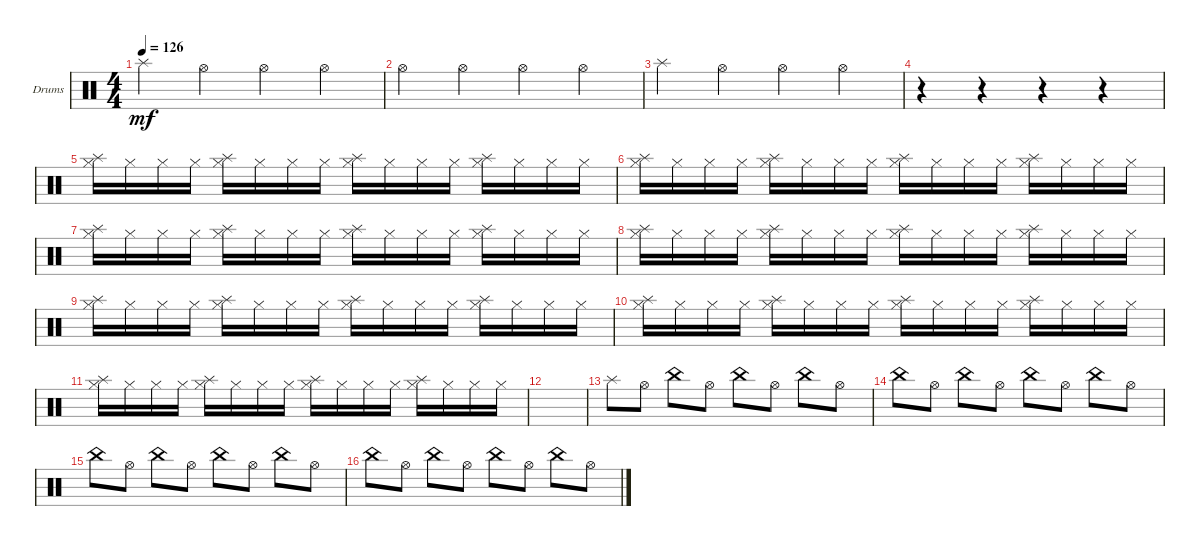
\defaultSystemsLayout 4
\bracketExtendMode groupsimilarinstruments
\firstSystemTrackNameOrientation horizontal
\otherSystemsTrackNameOrientation horizontal
\track ("Drumkit" "Drums") {instrument percussion}
\staff {score}
\articulation defaults
\ts (4 4)
\tempo 126
\clef neutral
\ks c "Splash (hit)".4{dy mf} "Hi-Hat (open)".4 "Hi-Hat (open)".4 "Hi-Hat (open)".4
|
"Hi-Hat (open)".4 "Hi-Hat (open)".4 "Hi-Hat (open)".4 "Hi-Hat (open)".4 |
"Splash (hit)".4 "Hi-Hat (open)".4 "Hi-Hat (open)".4 "Hi-Hat (open)".4 |
r.4 r.4 r.4 r.4 |
("Hi-Hat (closed)" "Splash (hit)").16 "Hi-Hat (closed)".16 "Hi-Hat (closed)".16 "Hi-Hat (closed)".16 ("Hi-Hat (closed)" "Splash (hit)").16 "Hi-Hat (closed)".16 "Hi-Hat (closed)".16 "Hi-Hat (closed)".16 ("Hi-Hat (closed)" "Splash (hit)").16 "Hi-Hat (closed)".16 "Hi-Hat (closed)".16 "Hi-Hat (closed)".16 ("Hi-Hat (closed)" "Splash (hit)").16 "Hi-Hat (closed)".16 "Hi-Hat (closed)".16 "Hi-Hat (closed)".16 |
("Hi-Hat (closed)" "Splash (hit)").16 "Hi-Hat (closed)".16 "Hi-Hat (closed)".16 "Hi-Hat (closed)".16 ("Hi-Hat (closed)" "Splash (hit)").16 "Hi-Hat (closed)".16 "Hi-Hat (closed)".16 "Hi-Hat (closed)".16 ("Hi-Hat (closed)" "Splash (hit)").16 "Hi-Hat (closed)".16 "Hi-Hat (closed)".16 "Hi-Hat (closed)".16 ("Hi-Hat (closed)" "Splash (hit)").16 "Hi-Hat (closed)".16 "Hi-Hat (closed)".16 "Hi-Hat (closed)".16 |
("Hi-Hat (closed)" "Splash (hit)").16 "Hi-Hat (closed)".16 "Hi-Hat (closed)".16 "Hi-Hat (closed)".16 ("Hi-Hat (closed)" "Splash (hit)").16 "Hi-Hat (closed)".16 "Hi-Hat (closed)".16 "Hi-Hat (closed)".16 ("Hi-Hat (closed)" "Splash (hit)").16 "Hi-Hat (closed)".16 "Hi-Hat (closed)".16 "Hi-Hat (closed)".16 ("Hi-Hat (closed)" "Splash (hit)").16 "Hi-Hat (closed)".16 "Hi-Hat (closed)".16 "Hi-Hat (closed)".16 |
("Hi-Hat (closed)" "Splash (hit)").16 "Hi-Hat (closed)".16 "Hi-Hat (closed)".16 "Hi-Hat (closed)".16 ("Hi-Hat (closed)" "Splash (hit)").16 "Hi-Hat (closed)".16 "Hi-Hat (closed)".16 "Hi-Hat (closed)".16 ("Hi-Hat (closed)" "Splash (hit)").16 "Hi-Hat (closed)".16 "Hi-Hat (closed)".16 "Hi-Hat (closed)".16 ("Hi-Hat (closed)" "Splash (hit)").16 "Hi-Hat (closed)".16 "Hi-Hat (closed)".16 "Hi-Hat (closed)".16 |
("Hi-Hat (closed)" "Splash (hit)").16 "Hi-Hat (closed)".16 "Hi-Hat (closed)".16 "Hi-Hat (closed)".16 ("Hi-Hat (closed)" "Splash (hit)").16 "Hi-Hat (closed)".16 "Hi-Hat (closed)".16 "Hi-Hat (closed)".16 ("Hi-Hat (closed)" "Splash (hit)").16 "Hi-Hat (closed)".16 "Hi-Hat (closed)".16 "Hi-Hat (closed)".16 ("Hi-Hat (closed)" "Splash (hit)").16 "Hi-Hat (closed)".16 "Hi-Hat (closed)".16 "Hi-Hat (closed)".16 |
("Hi-Hat (closed)" "Splash (hit)").16 "Hi-Hat (closed)".16 "Hi-Hat (closed)".16 "Hi-Hat (closed)".16 ("Hi-Hat (closed)" "Splash (hit)").16 "Hi-Hat (closed)".16 "Hi-Hat (closed)".16 "Hi-Hat (closed)".16 ("Hi-Hat (closed)" "Splash (hit)").16 "Hi-Hat (closed)".16 "Hi-Hat (closed)".16 "Hi-Hat (closed)".16 ("Hi-Hat (closed)" "Splash (hit)").16 "Hi-Hat (closed)".16 "Hi-Hat (closed)".16 "Hi-Hat (closed)".16 |
("Hi-Hat (closed)" "Splash (hit)").16 "Hi-Hat (closed)".16 "Hi-Hat (closed)".16 "Hi-Hat (closed)".16 ("Hi-Hat (closed)" "Splash (hit)").16 "Hi-Hat (closed)".16 "Hi-Hat (closed)".16 "Hi-Hat (closed)".16 ("Hi-Hat (closed)" "Splash (hit)").16 "Hi-Hat (closed)".16 "Hi-Hat (closed)".16 "Hi-Hat (closed)".16 ("Hi-Hat (closed)" "Splash (hit)").16 "Hi-Hat (closed)".16 "Hi-Hat (closed)".16 "Hi-Hat (closed)".16 |
|
"Splash (hit)".8 "Hi-Hat (open)".8 "China (hit)".8 "Hi-Hat (open)".8 "China (hit)".8 "Hi-Hat (open)".8 "China (hit)".8 "Hi-Hat (open)".8 |
"China (hit)".8 "Hi-Hat (open)".8 "China (hit)".8 "Hi-Hat (open)".8 "China (hit)".8 "Hi-Hat (open)".8 "China (hit)".8 "Hi-Hat (open)".8 |
"China (hit)".8 "Hi-Hat (open)".8 "China (hit)".8 "Hi-Hat (open)".8 "China (hit)".8 "Hi-Hat (open)".8 "China (hit)".8 "Hi-Hat (open)".8 |
"China (hit)".8 "Hi-Hat (open)".8 "China (hit)".8 "Hi-Hat (open)".8 "China (hit)".8 "Hi-Hat (open)".8 "China (hit)".8 "Hi-Hat (open)".8
